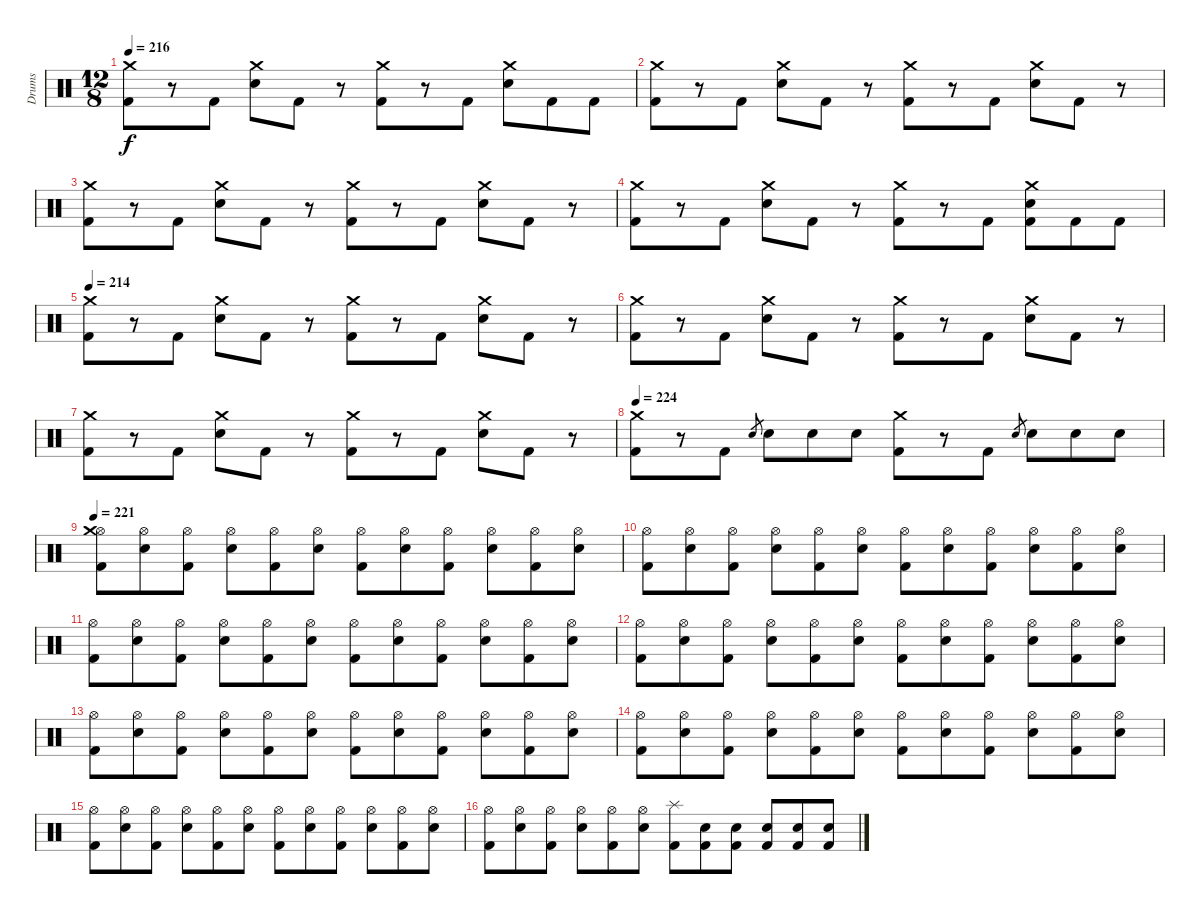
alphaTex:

\track ("Drums" "Drums") {instrument percussion}
\staff {score}
\articulation defaults
\ts (12 8)
\tempo 216
\clef neutral
\ks c
("Crash medium (hit)" "Kick (hit) 2").8{dy f} r.8 "Kick (hit) 2".8 ("Crash medium (hit)" "Snare (hit) 2").8 "Kick (hit) 2".8 r.8 ("Crash medium (hit)" "Kick (hit) 2").8 r.8 "Kick (hit) 2".8 ("Crash medium (hit)" "Snare (hit) 2").8 "Kick (hit) 2".8 "Kick (hit) 2".8 |
("Crash medium (hit)" "Kick (hit) 2").8 r.8 "Kick (hit) 2".8 ("Crash medium (hit)" "Snare (hit) 2").8 "Kick (hit) 2".8 r.8 ("Crash medium (hit)" "Kick (hit) 2").8 r.8 "Kick (hit) 2".8 ("Crash medium (hit)" "Snare (hit) 2").8 "Kick (hit) 2".8 r.8 |
("Crash medium (hit)" "Kick (hit) 2").8 r.8 "Kick (hit) 2".8 ("Crash medium (hit)" "Snare (hit) 2").8 "Kick (hit) 2".8 r.8 ("Crash medium (hit)" "Kick (hit) 2").8 r.8 "Kick (hit) 2".8 ("Crash medium (hit)" "Snare (hit) 2").8 "Kick (hit) 2".8 r.8 |
("Crash medium (hit)" "Kick (hit) 2").8 r.8 "Kick (hit) 2".8 ("Crash medium (hit)" "Snare (hit) 2").8 "Kick (hit) 2".8 r.8 ("Crash medium (hit)" "Kick (hit) 2").8 r.8 "Kick (hit) 2".8 ("Crash medium (hit)" "Snare (hit) 2" "Kick (hit) 2").8 "Kick (hit) 2".8 "Kick (hit) 2".8 |
\tempo 214
("Crash medium (hit)" "Kick (hit) 2").8 r.8 "Kick (hit) 2".8 ("Crash medium (hit)" "Snare (hit) 2").8 "Kick (hit) 2".8 r.8 ("Crash medium (hit)" "Kick (hit) 2").8 r.8 "Kick (hit) 2".8 ("Crash medium (hit)" "Snare (hit) 2").8 "Kick (hit) 2".8 r.8 |
("Crash medium (hit)" "Kick (hit) 2").8 r.8 "Kick (hit) 2".8 ("Crash medium (hit)" "Snare (hit) 2").8 "Kick (hit) 2".8 r.8 ("Crash medium (hit)" "Kick (hit) 2").8 r.8 "Kick (hit) 2".8 ("Crash medium (hit)" "Snare (hit) 2").8 "Kick (hit) 2".8 r.8 |
("Crash medium (hit)" "Kick (hit) 2").8 r.8 "Kick (hit) 2".8 ("Crash medium (hit)" "Snare (hit) 2").8 "Kick (hit) 2".8 r.8 ("Crash medium (hit)" "Kick (hit) 2").8 r.8 "Kick (hit) 2".8 ("Crash medium (hit)" "Snare (hit) 2").8 "Kick (hit) 2".8 r.8 |
\tempo 224
("Crash medium (hit)" "Kick (hit) 2").8 r.8 "Kick (hit) 2".8 "Snare (hit) 2".8{gr} "Snare (hit) 2".8 "Snare (hit) 2".8 "Snare (hit) 2".8 ("Crash medium (hit)" "Kick (hit) 2").8 r.8 "Kick (hit) 2".8 "Snare (hit) 2".8{gr} "Snare (hit) 2".8 "Snare (hit) 2".8 "Snare (hit) 2".8 |
\tempo 221
("Hi-Hat (open)" "Crash medium (hit)" "Kick (hit) 2").8 ("Hi-Hat (open)" "Snare (hit) 2").8 ("Hi-Hat (open)" "Kick (hit) 2").8 ("Hi-Hat (open)" "Snare (hit) 2").8 ("Hi-Hat (open)" "Kick (hit) 2").8 ("Hi-Hat (open)" "Snare (hit) 2").8 ("Hi-Hat (open)" "Kick (hit) 2").8 ("Hi-Hat (open)" "Snare (hit) 2").8 ("Hi-Hat (open)" "Kick (hit) 2").8 ("Hi-Hat (open)" "Snare (hit) 2").8 ("Hi-Hat (open)" "Kick (hit) 2").8 ("Hi-Hat (open)" "Snare (hit) 2").8 |
("Hi-Hat (open)" "Kick (hit) 2").8 ("Hi-Hat (open)" "Snare (hit) 2").8 ("Hi-Hat (open)" "Kick (hit) 2").8 ("Hi-Hat (open)" "Snare (hit) 2").8 ("Hi-Hat (open)" "Kick (hit) 2").8 ("Hi-Hat (open)" "Snare (hit) 2").8 ("Hi-Hat (open)" "Kick (hit) 2").8 ("Hi-Hat (open)" "Snare (hit) 2").8 ("Hi-Hat (open)" "Kick (hit) 2").8 ("Hi-Hat (open)" "Snare (hit) 2").8 ("Hi-Hat (open)" "Kick (hit) 2").8 ("Hi-Hat (open)" "Snare (hit) 2").8 |
("Hi-Hat (open)" "Kick (hit) 2").8 ("Hi-Hat (open)" "Snare (hit) 2").8 ("Hi-Hat (open)" "Kick (hit) 2").8 ("Hi-Hat (open)" "Snare (hit) 2").8 ("Hi-Hat (open)" "Kick (hit) 2").8 ("Hi-Hat (open)" "Snare (hit) 2").8 ("Hi-Hat (open)" "Kick (hit) 2").8 ("Hi-Hat (open)" "Snare (hit) 2").8 ("Hi-Hat (open)" "Kick (hit) 2").8 ("Hi-Hat (open)" "Snare (hit) 2").8 ("Hi-Hat (open)" "Kick (hit) 2").8 ("Hi-Hat (open)" "Snare (hit) 2").8 |
("Hi-Hat (open)" "Kick (hit) 2").8 ("Hi-Hat (open)" "Snare (hit) 2").8 ("Hi-Hat (open)" "Kick (hit) 2").8 ("Hi-Hat (open)" "Snare (hit) 2").8 ("Hi-Hat (open)" "Kick (hit) 2").8 ("Hi-Hat (open)" "Snare (hit) 2").8 ("Hi-Hat (open)" "Kick (hit) 2").8 ("Hi-Hat (open)" "Snare (hit) 2").8 ("Hi-Hat (open)" "Kick (hit) 2").8 ("Hi-Hat (open)" "Snare (hit) 2").8 ("Hi-Hat (open)" "Kick (hit) 2").8 ("Hi-Hat (open)" "Snare (hit) 2").8 |
("Hi-Hat (open)" "Kick (hit) 2").8 ("Hi-Hat (open)" "Snare (hit) 2").8 ("Hi-Hat (open)" "Kick (hit) 2").8 ("Hi-Hat (open)" "Snare (hit) 2").8 ("Hi-Hat (open)" "Kick (hit) 2").8 ("Hi-Hat (open)" "Snare (hit) 2").8 ("Hi-Hat (open)" "Kick (hit) 2").8 ("Hi-Hat (open)" "Snare (hit) 2").8 ("Hi-Hat (open)" "Kick (hit) 2").8 ("Hi-Hat (open)" "Snare (hit) 2").8 ("Hi-Hat (open)" "Kick (hit) 2").8 ("Hi-Hat (open)" "Snare (hit) 2").8 |
("Hi-Hat (open)" "Kick (hit) 2").8 ("Hi-Hat (open)" "Snare (hit) 2").8 ("Hi-Hat (open)" "Kick (hit) 2").8 ("Hi-Hat (open)" "Snare (hit) 2").8 ("Hi-Hat (open)" "Kick (hit) 2").8 ("Hi-Hat (open)" "Snare (hit) 2").8 ("Hi-Hat (open)" "Kick (hit) 2").8 ("Hi-Hat (open)" "Snare (hit) 2").8 ("Hi-Hat (open)" "Kick (hit) 2").8 ("Hi-Hat (open)" "Snare (hit) 2").8 ("Hi-Hat (open)" "Kick (hit) 2").8 ("Hi-Hat (open)" "Snare (hit) 2").8 |
("Hi-Hat (open)" "Kick (hit) 2").8 ("Hi-Hat (open)" "Snare (hit) 2").8 ("Hi-Hat (open)" "Kick (hit) 2").8 ("Hi-Hat (open)" "Snare (hit) 2").8 ("Hi-Hat (open)" "Kick (hit) 2").8 ("Hi-Hat (open)" "Snare (hit) 2").8 ("Hi-Hat (open)" "Kick (hit) 2").8 ("Hi-Hat (open)" "Snare (hit) 2").8 ("Hi-Hat (open)" "Kick (hit) 2").8 ("Hi-Hat (open)" "Snare (hit) 2").8 ("Hi-Hat (open)" "Kick (hit) 2").8 ("Hi-Hat (open)" "Snare (hit) 2").8 |
("Hi-Hat (open)" "Kick (hit) 2").8 ("Hi-Hat (open)" "Snare (hit) 2").8 ("Hi-Hat (open)" "Kick (hit) 2").8 ("Hi-Hat (open)" "Snare (hit) 2").8 ("Hi-Hat (open)" "Kick (hit) 2").8 ("Hi-Hat (open)" "Snare (hit) 2").8 ("Splash (hit)" "Kick (hit) 2").8 ("Snare (hit) 2" "Kick (hit) 2").8 ("Snare (hit) 2" "Kick (hit) 2").8 ("Snare (hit) 2" "Kick (hit) 2").8 ("Snare (hit) 2" "Kick (hit) 2").8 ("Snare (hit) 2" "Kick (hit) 2").8
